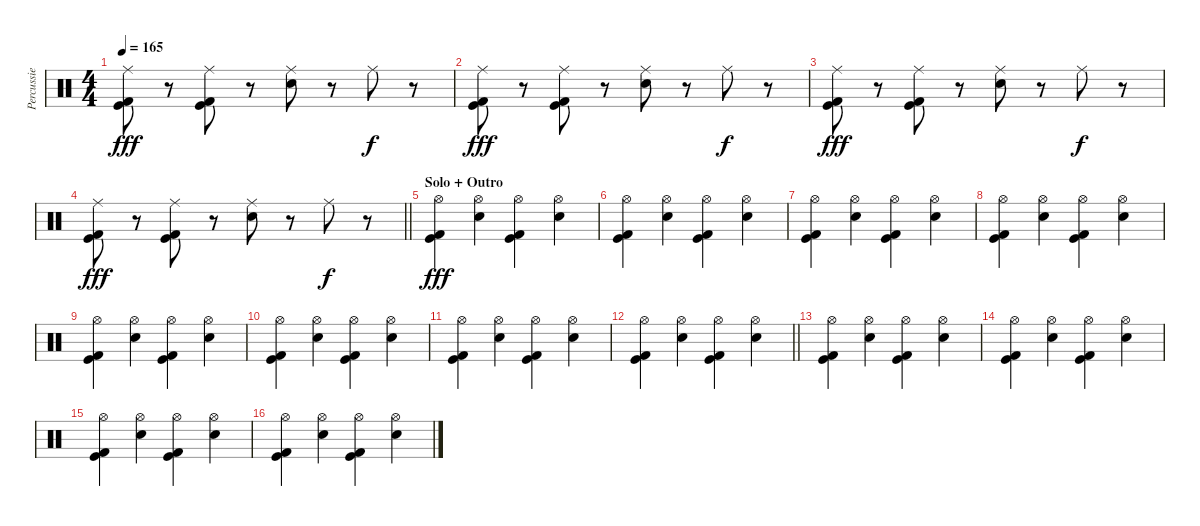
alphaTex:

\track ("Percussie" "Percussie") {instrument percussion}
\staff {score}
\articulation defaults
\ts (4 4)
\tempo 165
\clef neutral
\ks c
("Ride (middle)" "Kick (hit)" "Kick (hit) 2").8{dy fff} r.8 ("Ride (middle)" "Kick (hit)" "Kick (hit) 2").8 r.8 ("Ride (middle)" "Snare (hit) 2").8 r.8 "Ride (middle)".8{dy f} r.8 |
("Ride (middle)" "Kick (hit)" "Kick (hit) 2").8{dy fff} r.8 ("Ride (middle)" "Kick (hit)" "Kick (hit) 2").8 r.8 ("Ride (middle)" "Snare (hit) 2").8 r.8 "Ride (middle)".8{dy f} r.8 |
("Ride (middle)" "Kick (hit)" "Kick (hit) 2").8{dy fff} r.8 ("Ride (middle)" "Kick (hit)" "Kick (hit) 2").8 r.8 ("Ride (middle)" "Snare (hit) 2").8 r.8 "Ride (middle)".8{dy f} r.8 |
\barLineRight lightlight
("Ride (middle)" "Kick (hit)" "Kick (hit) 2").8{dy fff} r.8 ("Ride (middle)" "Kick (hit)" "Kick (hit) 2").8 r.8 ("Ride (middle)" "Snare (hit) 2").8 r.8 "Ride (middle)".8{dy f} r.8 |
\section ("" "Solo + Outro")
("Hi-Hat (open)" "Kick (hit)" "Kick (hit) 2").4{dy fff} ("Hi-Hat (open)" "Snare (hit) 2").4 ("Hi-Hat (open)" "Kick (hit)" "Kick (hit) 2").4 ("Hi-Hat (open)" "Snare (hit) 2").4 |
("Hi-Hat (open)" "Kick (hit)" "Kick (hit) 2").4 ("Hi-Hat (open)" "Snare (hit) 2").4 ("Hi-Hat (open)" "Kick (hit)" "Kick (hit) 2").4 ("Hi-Hat (open)" "Snare (hit) 2").4 |
("Hi-Hat (open)" "Kick (hit)" "Kick (hit) 2").4 ("Hi-Hat (open)" "Snare (hit) 2").4 ("Hi-Hat (open)" "Kick (hit)" "Kick (hit) 2").4 ("Hi-Hat (open)" "Snare (hit) 2").4 |
("Hi-Hat (open)" "Kick (hit)" "Kick (hit) 2").4 ("Hi-Hat (open)" "Snare (hit) 2").4 ("Hi-Hat (open)" "Kick (hit)" "Kick (hit) 2").4 ("Hi-Hat (open)" "Snare (hit) 2").4 |
("Hi-Hat (open)" "Kick (hit)" "Kick (hit) 2").4 ("Hi-Hat (open)" "Snare (hit) 2").4 ("Hi-Hat (open)" "Kick (hit)" "Kick (hit) 2").4 ("Hi-Hat (open)" "Snare (hit) 2").4 |
("Hi-Hat (open)" "Kick (hit)" "Kick (hit) 2").4 ("Hi-Hat (open)" "Snare (hit) 2").4 ("Hi-Hat (open)" "Kick (hit)" "Kick (hit) 2").4 ("Hi-Hat (open)" "Snare (hit) 2").4 |
("Hi-Hat (open)" "Kick (hit)" "Kick (hit) 2").4 ("Hi-Hat (open)" "Snare (hit) 2").4 ("Hi-Hat (open)" "Kick (hit)" "Kick (hit) 2").4 ("Hi-Hat (open)" "Snare (hit) 2").4 |
\barLineRight lightlight
("Hi-Hat (open)" "Kick (hit)" "Kick (hit) 2").4 ("Hi-Hat (open)" "Snare (hit) 2").4 ("Hi-Hat (open)" "Kick (hit)" "Kick (hit) 2").4 ("Hi-Hat (open)" "Snare (hit) 2").4 |
("Hi-Hat (open)" "Kick (hit)" "Kick (hit) 2").4 ("Hi-Hat (open)" "Snare (hit) 2").4 ("Hi-Hat (open)" "Kick (hit)" "Kick (hit) 2").4 ("Hi-Hat (open)" "Snare (hit) 2").4 |
("Hi-Hat (open)" "Kick (hit)" "Kick (hit) 2").4 ("Hi-Hat (open)" "Snare (hit) 2").4 ("Hi-Hat (open)" "Kick (hit)" "Kick (hit) 2").4 ("Hi-Hat (open)" "Snare (hit) 2").4 |
("Hi-Hat (open)" "Kick (hit)" "Kick (hit) 2").4 ("Hi-Hat (open)" "Snare (hit) 2").4 ("Hi-Hat (open)" "Kick (hit)" "Kick (hit) 2").4 ("Hi-Hat (open)" "Snare (hit) 2").4 |
("Hi-Hat (open)" "Kick (hit)" "Kick (hit) 2").4 ("Hi-Hat (open)" "Snare (hit) 2").4 ("Hi-Hat (open)" "Kick (hit)" "Kick (hit) 2").4 ("Hi-Hat (open)" "Snare (hit) 2").4
